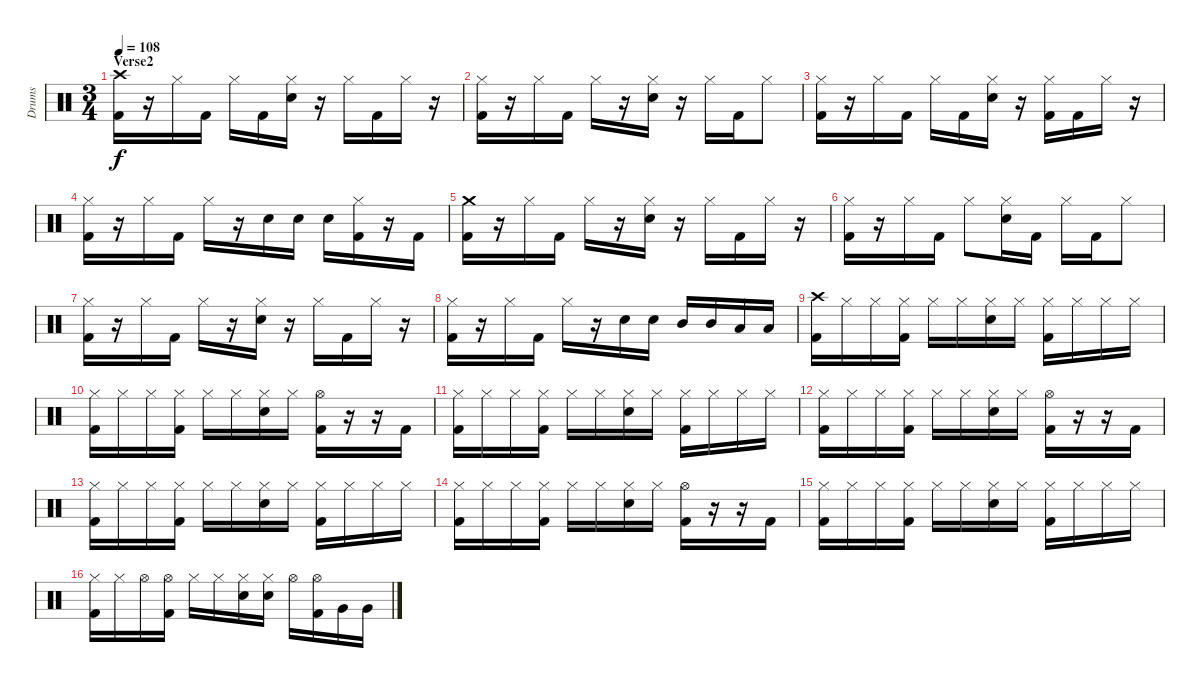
\track ("Drums" "Drums") {instrument percussion}
\staff {score}
\articulation defaults
\ts (3 4)
\section ("" "Verse2")
\tempo 108
\clef neutral
\ks c
("Crash high (hit)" "Kick (hit) 2").16{dy f} r.16 "Hi-Hat (closed)".16 "Kick (hit) 2".16 "Hi-Hat (closed)".16 "Kick (hit) 2".16 ("Hi-Hat (closed)" "Electric Snare (hit)").16 r.16 "Hi-Hat (closed)".16 "Kick (hit) 2".16 "Hi-Hat (closed)".16 r.16 |
("Hi-Hat (closed)" "Kick (hit) 2").16 r.16 "Hi-Hat (closed)".16 "Kick (hit) 2".16 "Hi-Hat (closed)".16 r.16 ("Hi-Hat (closed)" "Electric Snare (hit)").16 r.16 "Hi-Hat (closed)".16 "Kick (hit) 2".16 "Hi-Hat (closed)".8 |
("Hi-Hat (closed)" "Kick (hit) 2").16 r.16 "Hi-Hat (closed)".16 "Kick (hit) 2".16 "Hi-Hat (closed)".16 "Kick (hit) 2".16 ("Hi-Hat (closed)" "Electric Snare (hit)").16 r.16 ("Hi-Hat (closed)" "Kick (hit) 2").16 "Kick (hit) 2".16 "Hi-Hat (closed)".16 r.16 |
("Hi-Hat (closed)" "Kick (hit) 2").16 r.16 "Hi-Hat (closed)".16 "Kick (hit) 2".16 "Hi-Hat (closed)".16 r.16 "Electric Snare (hit)".16 "Electric Snare (hit)".16 "Electric Snare (hit)".16 ("Hi-Hat (closed)" "Kick (hit) 2").16 r.16 "Kick (hit) 2".16 |
("Crash medium (hit)" "Kick (hit) 2").16 r.16 "Hi-Hat (closed)".16 "Kick (hit) 2".16 "Hi-Hat (closed)".16 r.16 ("Hi-Hat (closed)" "Electric Snare (hit)").16 r.16 "Hi-Hat (closed)".16 "Kick (hit) 2".16 "Hi-Hat (closed)".16 r.16 |
("Hi-Hat (closed)" "Kick (hit) 2").16 r.16 "Hi-Hat (closed)".16 "Kick (hit) 2".16 "Hi-Hat (closed)".8 ("Hi-Hat (closed)" "Electric Snare (hit)").16 "Kick (hit) 2".16 "Hi-Hat (closed)".16 "Kick (hit) 2".16 "Hi-Hat (closed)".8 |
("Hi-Hat (closed)" "Kick (hit) 2").16 r.16 "Hi-Hat (closed)".16 "Kick (hit) 2".16 "Hi-Hat (closed)".16 r.16 ("Hi-Hat (closed)" "Electric Snare (hit)").16 r.16 "Hi-Hat (closed)".16 "Kick (hit) 2".16 "Hi-Hat (closed)".16 r.16 |
("Hi-Hat (closed)" "Kick (hit) 2").16 r.16 "Hi-Hat (closed)".16 "Kick (hit) 2".16 "Hi-Hat (closed)".16 r.16 "Electric Snare (hit)".16 "Electric Snare (hit)".16 "Mid Tom (hit)".16 "Mid Tom (hit)".16 "Low Tom (hit)".16 "Low Tom (hit)".16 |
("Crash high (hit)" "Kick (hit) 2").16 "Hi-Hat (closed)".16 "Hi-Hat (closed)".16 ("Hi-Hat (closed)" "Kick (hit) 2").16 "Hi-Hat (closed)".16 "Hi-Hat (closed)".16 ("Hi-Hat (closed)" "Electric Snare (hit)").16 "Hi-Hat (closed)".16 ("Hi-Hat (closed)" "Kick (hit) 2").16 "Hi-Hat (closed)".16 "Hi-Hat (closed)".16 "Hi-Hat (closed)".16 |
("Hi-Hat (closed)" "Kick (hit) 2").16 "Hi-Hat (closed)".16 "Hi-Hat (closed)".16 ("Hi-Hat (closed)" "Kick (hit) 2").16 "Hi-Hat (closed)".16 "Hi-Hat (closed)".16 ("Hi-Hat (closed)" "Electric Snare (hit)").16 "Hi-Hat (closed)".16 ("Hi-Hat (open)" "Kick (hit) 2").16 r.16 r.16 "Kick (hit) 2".16 |
("Hi-Hat (closed)" "Kick (hit) 2").16 "Hi-Hat (closed)".16 "Hi-Hat (closed)".16 ("Hi-Hat (closed)" "Kick (hit) 2").16 "Hi-Hat (closed)".16 "Hi-Hat (closed)".16 ("Hi-Hat (closed)" "Electric Snare (hit)").16 "Hi-Hat (closed)".16 ("Hi-Hat (closed)" "Kick (hit) 2").16 "Hi-Hat (closed)".16 "Hi-Hat (closed)".16 "Hi-Hat (closed)".16 |
("Hi-Hat (closed)" "Kick (hit) 2").16 "Hi-Hat (closed)".16 "Hi-Hat (closed)".16 ("Hi-Hat (closed)" "Kick (hit) 2").16 "Hi-Hat (closed)".16 "Hi-Hat (closed)".16 ("Hi-Hat (closed)" "Electric Snare (hit)").16 "Hi-Hat (closed)".16 ("Hi-Hat (open)" "Kick (hit) 2").16 r.16 r.16 "Kick (hit) 2".16 |
("Hi-Hat (closed)" "Kick (hit) 2").16 "Hi-Hat (closed)".16 "Hi-Hat (closed)".16 ("Hi-Hat (closed)" "Kick (hit) 2").16 "Hi-Hat (closed)".16 "Hi-Hat (closed)".16 ("Hi-Hat (closed)" "Electric Snare (hit)").16 "Hi-Hat (closed)".16 ("Hi-Hat (closed)" "Kick (hit) 2").16 "Hi-Hat (closed)".16 "Hi-Hat (closed)".16 "Hi-Hat (closed)".16 |
("Hi-Hat (closed)" "Kick (hit) 2").16 "Hi-Hat (closed)".16 "Hi-Hat (closed)".16 ("Hi-Hat (closed)" "Kick (hit) 2").16 "Hi-Hat (closed)".16 "Hi-Hat (closed)".16 ("Hi-Hat (closed)" "Electric Snare (hit)").16 "Hi-Hat (closed)".16 ("Hi-Hat (open)" "Kick (hit) 2").16 r.16 r.16 "Kick (hit) 2".16 |
("Hi-Hat (closed)" "Kick (hit) 2").16 "Hi-Hat (closed)".16 "Hi-Hat (closed)".16 ("Hi-Hat (closed)" "Kick (hit) 2").16 "Hi-Hat (closed)".16 "Hi-Hat (closed)".16 ("Hi-Hat (closed)" "Electric Snare (hit)").16 "Hi-Hat (closed)".16 ("Hi-Hat (closed)" "Kick (hit) 2").16 "Hi-Hat (closed)".16 "Hi-Hat (closed)".16 "Hi-Hat (closed)".16 |
("Hi-Hat (closed)" "Kick (hit) 2").16 "Hi-Hat (closed)".16 "Hi-Hat (open)".16 ("Hi-Hat (open)" "Kick (hit) 2").16 "Hi-Hat (closed)".16 "Hi-Hat (closed)".16 ("Hi-Hat (closed)" "Electric Snare (hit)").16 ("Hi-Hat (closed)" "Electric Snare (hit)").16 "Hi-Hat (open)".16 ("Hi-Hat (open)" "Kick (hit) 2").16 "Very Low Tom (hit)".16 "Very Low Tom (hit)".16
